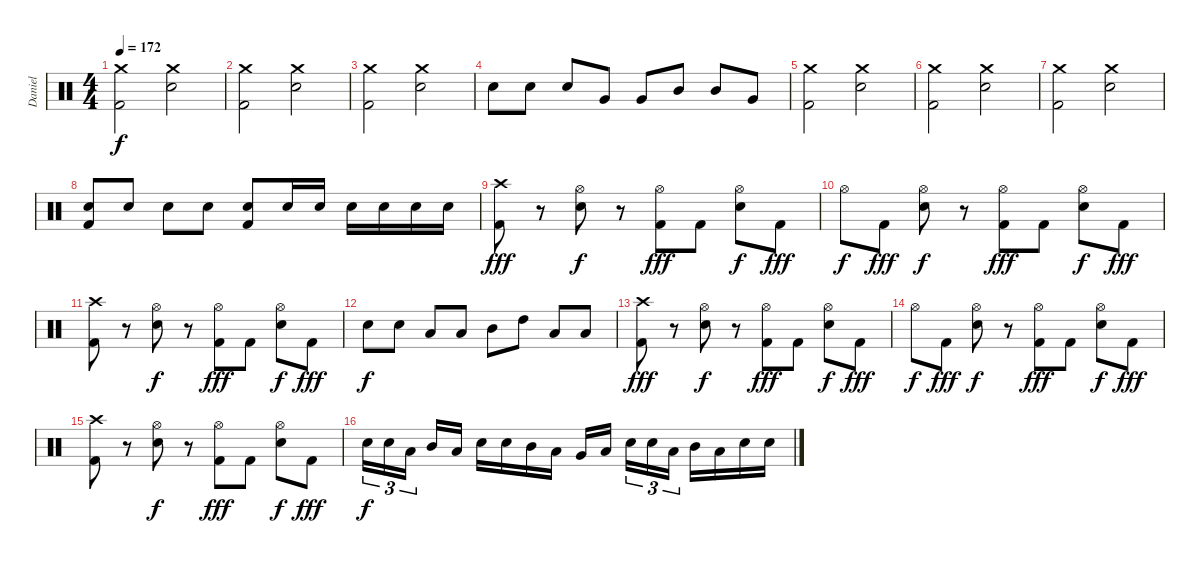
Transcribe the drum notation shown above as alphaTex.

\track ("Daniel" "Daniel") {instrument percussion}
\staff {score}
\articulation defaults
\ts (4 4)
\tempo 172
\clef neutral
\ks c
("Crash medium (hit)" "Kick (hit) 2").2{dy f} ("Crash medium (hit)" "Electric Snare (hit)").2 |
("Crash medium (hit)" "Kick (hit) 2").2 ("Crash medium (hit)" "Electric Snare (hit)").2 |
("Crash medium (hit)" "Kick (hit) 2").2 ("Crash medium (hit)" "Electric Snare (hit)").2 |
"Electric Snare (hit)".8 "Electric Snare (hit)".8 "Electric Snare (hit)".8 "Very Low Tom (hit)".8 "Very Low Tom (hit)".8 "Mid Tom (hit)".8 "Mid Tom (hit)".8 "Very Low Tom (hit)".8 |
("Crash medium (hit)" "Kick (hit) 2").2 ("Crash medium (hit)" "Electric Snare (hit)").2 |
("Crash medium (hit)" "Kick (hit) 2").2 ("Crash medium (hit)" "Electric Snare (hit)").2 |
("Crash medium (hit)" "Kick (hit) 2").2 ("Crash medium (hit)" "Electric Snare (hit)").2 |
("Electric Snare (hit)" "Kick (hit) 2").8 "Electric Snare (hit)".8 "Electric Snare (hit)".8 "Electric Snare (hit)".8 ("Electric Snare (hit)" "Kick (hit) 2").8 "Electric Snare (hit)".16 "Electric Snare (hit)".16 "Electric Snare (hit)".16 "Electric Snare (hit)".16 "Electric Snare (hit)".16 "Electric Snare (hit)".16 |
("Crash high (hit)" "Kick (hit) 2").8{dy fff} r.8 ("Hi-Hat (open)" "Electric Snare (hit)").8{dy f} r.8 ("Hi-Hat (open)" "Kick (hit) 2").8{dy fff} "Kick (hit) 2".8 ("Hi-Hat (open)" "Electric Snare (hit)").8{dy f} "Kick (hit) 2".8{dy fff} |
"Hi-Hat (open)".8{dy f} "Kick (hit) 2".8{dy fff} ("Hi-Hat (open)" "Electric Snare (hit)").8{dy f} r.8 ("Hi-Hat (open)" "Kick (hit) 2").8{dy fff} "Kick (hit) 2".8 ("Hi-Hat (open)" "Electric Snare (hit)").8{dy f} "Kick (hit) 2".8{dy fff} |
("Crash high (hit)" "Kick (hit) 2").8 r.8 ("Hi-Hat (open)" "Electric Snare (hit)").8{dy f} r.8 ("Hi-Hat (open)" "Kick (hit) 2").8{dy fff} "Kick (hit) 2".8 ("Hi-Hat (open)" "Electric Snare (hit)").8{dy f} "Kick (hit) 2".8{dy fff} |
"Electric Snare (hit)".8{dy f} "Electric Snare (hit)".8 "Low Tom (hit)".8 "Low Tom (hit)".8 "Mid Tom (hit)".8 "High Tom (hit)".8 "Low Tom (hit)".8 "Low Tom (hit)".8 |
("Crash high (hit)" "Kick (hit) 2").8{dy fff} r.8 ("Hi-Hat (open)" "Electric Snare (hit)").8{dy f} r.8 ("Hi-Hat (open)" "Kick (hit) 2").8{dy fff} "Kick (hit) 2".8 ("Hi-Hat (open)" "Electric Snare (hit)").8{dy f} "Kick (hit) 2".8{dy fff} |
"Hi-Hat (open)".8{dy f} "Kick (hit) 2".8{dy fff} ("Hi-Hat (open)" "Electric Snare (hit)").8{dy f} r.8 ("Hi-Hat (open)" "Kick (hit) 2").8{dy fff} "Kick (hit) 2".8 ("Hi-Hat (open)" "Electric Snare (hit)").8{dy f} "Kick (hit) 2".8{dy fff} |
("Crash high (hit)" "Kick (hit) 2").8 r.8 ("Hi-Hat (open)" "Electric Snare (hit)").8{dy f} r.8 ("Hi-Hat (open)" "Kick (hit) 2").8{dy fff} "Kick (hit) 2".8 ("Hi-Hat (open)" "Electric Snare (hit)").8{dy f} "Kick (hit) 2".8{dy fff} |
"Electric Snare (hit)".16{tu (3 2) dy f} "Electric Snare (hit)".16{tu (3 2)} "Low Tom (hit)".16{tu (3 2) beam splitsecondary} "Mid Tom (hit)".16 "Low Tom (hit)".16 "Electric Snare (hit)".16 "Electric Snare (hit)".16 "Mid Tom (hit)".16 "Low Tom (hit)".16 "Very Low Tom (hit)".16 "Low Floor Tom (hit)".16{beam splitsecondary} "Electric Snare (hit)".16{tu (3 2)} "Electric Snare (hit)".16{tu (3 2)} "Low Tom (hit)".16{tu (3 2)} "Mid Tom (hit)".16 "Low Tom (hit)".16 "Electric Snare (hit)".16 "Electric Snare (hit)".16
